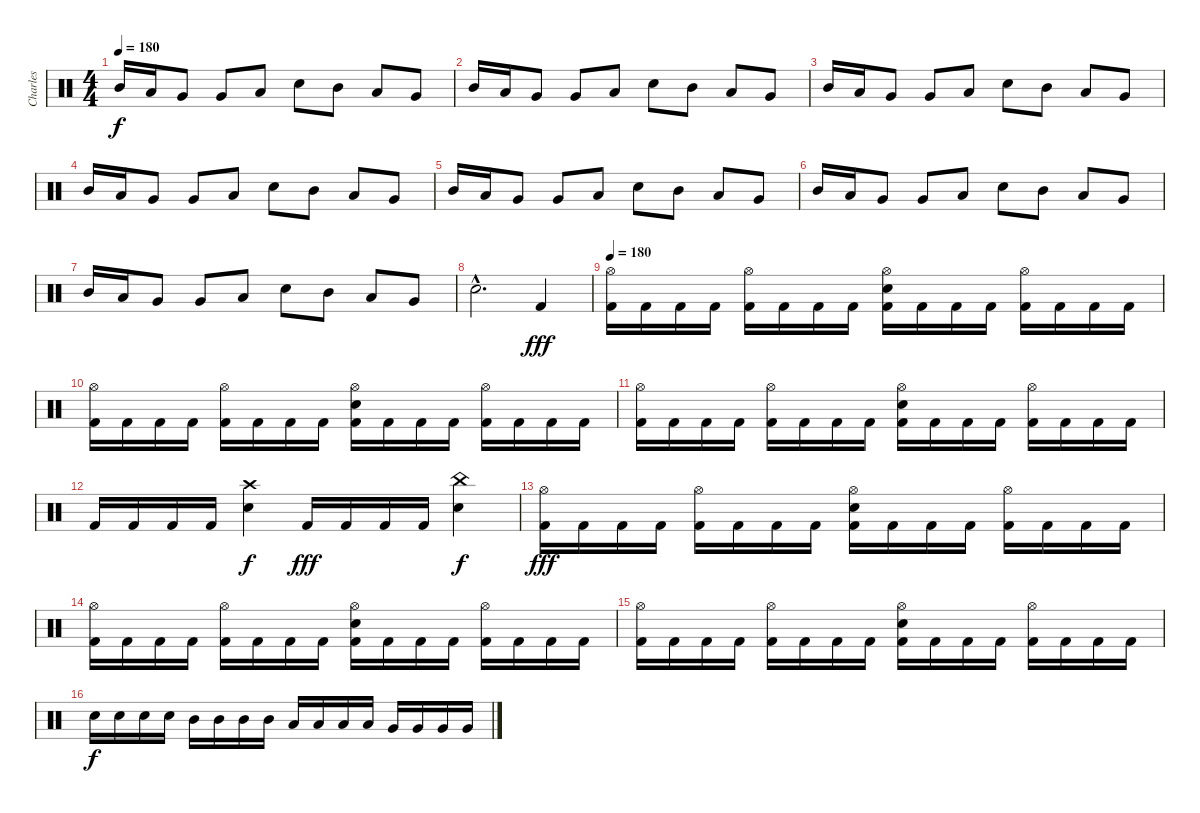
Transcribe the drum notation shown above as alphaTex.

\track ("Charles" "Charles") {instrument percussion}
\staff {score}
\articulation defaults
\ts (4 4)
\tempo 180
\clef neutral
\ks c "Mid Tom (hit)".16{dy f} "Low Tom (hit)".16 "Very Low Tom (hit)".8 "Very Low Tom (hit)".8 "Low Floor Tom (hit)".8 "Electric Snare (hit)".8 "Mid Tom (hit)".8 "Low Tom (hit)".8 "Very Low Tom (hit)".8
|
"Mid Tom (hit)".16 "Low Tom (hit)".16 "Very Low Tom (hit)".8 "Very Low Tom (hit)".8 "Low Floor Tom (hit)".8 "Electric Snare (hit)".8 "Mid Tom (hit)".8 "Low Tom (hit)".8 "Very Low Tom (hit)".8 |
"Mid Tom (hit)".16 "Low Tom (hit)".16 "Very Low Tom (hit)".8 "Very Low Tom (hit)".8 "Low Floor Tom (hit)".8 "Electric Snare (hit)".8 "Mid Tom (hit)".8 "Low Tom (hit)".8 "Very Low Tom (hit)".8 |
"Mid Tom (hit)".16 "Low Tom (hit)".16 "Very Low Tom (hit)".8 "Very Low Tom (hit)".8 "Low Floor Tom (hit)".8 "Electric Snare (hit)".8 "Mid Tom (hit)".8 "Low Tom (hit)".8 "Very Low Tom (hit)".8 |
"Mid Tom (hit)".16 "Low Tom (hit)".16 "Very Low Tom (hit)".8 "Very Low Tom (hit)".8 "Low Floor Tom (hit)".8 "Electric Snare (hit)".8 "Mid Tom (hit)".8 "Low Tom (hit)".8 "Very Low Tom (hit)".8 |
"Mid Tom (hit)".16 "Low Tom (hit)".16 "Very Low Tom (hit)".8 "Very Low Tom (hit)".8 "Low Floor Tom (hit)".8 "Electric Snare (hit)".8 "Mid Tom (hit)".8 "Low Tom (hit)".8 "Very Low Tom (hit)".8 |
"Mid Tom (hit)".16 "Low Tom (hit)".16 "Very Low Tom (hit)".8 "Very Low Tom (hit)".8 "Low Floor Tom (hit)".8 "Electric Snare (hit)".8 "Mid Tom (hit)".8 "Low Tom (hit)".8 "Very Low Tom (hit)".8 |
"Electric Snare (hit)"{hac}.2{d} "Kick (hit) 2".4{dy fff} |
\tempo 180
("Hi-Hat (open)" "Kick (hit) 2").16 "Kick (hit) 2".16 "Kick (hit) 2".16 "Kick (hit) 2".16 ("Hi-Hat (open)" "Kick (hit) 2").16 "Kick (hit) 2".16 "Kick (hit) 2".16 "Kick (hit) 2".16 ("Hi-Hat (open)" "Electric Snare (hit)" "Kick (hit) 2").16 "Kick (hit) 2".16 "Kick (hit) 2".16 "Kick (hit) 2".16 ("Hi-Hat (open)" "Kick (hit) 2").16 "Kick (hit) 2".16 "Kick (hit) 2".16 "Kick (hit) 2".16 |
("Hi-Hat (open)" "Kick (hit) 2").16 "Kick (hit) 2".16 "Kick (hit) 2".16 "Kick (hit) 2".16 ("Hi-Hat (open)" "Kick (hit) 2").16 "Kick (hit) 2".16 "Kick (hit) 2".16 "Kick (hit) 2".16 ("Hi-Hat (open)" "Electric Snare (hit)" "Kick (hit) 2").16 "Kick (hit) 2".16 "Kick (hit) 2".16 "Kick (hit) 2".16 ("Hi-Hat (open)" "Kick (hit) 2").16 "Kick (hit) 2".16 "Kick (hit) 2".16 "Kick (hit) 2".16 |
("Hi-Hat (open)" "Kick (hit) 2").16 "Kick (hit) 2".16 "Kick (hit) 2".16 "Kick (hit) 2".16 ("Hi-Hat (open)" "Kick (hit) 2").16 "Kick (hit) 2".16 "Kick (hit) 2".16 "Kick (hit) 2".16 ("Hi-Hat (open)" "Electric Snare (hit)" "Kick (hit) 2").16 "Kick (hit) 2".16 "Kick (hit) 2".16 "Kick (hit) 2".16 ("Hi-Hat (open)" "Kick (hit) 2").16 "Kick (hit) 2".16 "Kick (hit) 2".16 "Kick (hit) 2".16 |
"Kick (hit) 2".16 "Kick (hit) 2".16 "Kick (hit) 2".16 "Kick (hit) 2".16 ("Crash high (hit)" "Electric Snare (hit)").4{dy f} "Kick (hit) 2".16{dy fff} "Kick (hit) 2".16 "Kick (hit) 2".16 "Kick (hit) 2".16 ("China (hit)" "Electric Snare (hit)").4{dy f} |
("Hi-Hat (open)" "Kick (hit) 2").16{dy fff} "Kick (hit) 2".16 "Kick (hit) 2".16 "Kick (hit) 2".16 ("Hi-Hat (open)" "Kick (hit) 2").16 "Kick (hit) 2".16 "Kick (hit) 2".16 "Kick (hit) 2".16 ("Hi-Hat (open)" "Electric Snare (hit)" "Kick (hit) 2").16 "Kick (hit) 2".16 "Kick (hit) 2".16 "Kick (hit) 2".16 ("Hi-Hat (open)" "Kick (hit) 2").16 "Kick (hit) 2".16 "Kick (hit) 2".16 "Kick (hit) 2".16 |
("Hi-Hat (open)" "Kick (hit) 2").16 "Kick (hit) 2".16 "Kick (hit) 2".16 "Kick (hit) 2".16 ("Hi-Hat (open)" "Kick (hit) 2").16 "Kick (hit) 2".16 "Kick (hit) 2".16 "Kick (hit) 2".16 ("Hi-Hat (open)" "Electric Snare (hit)" "Kick (hit) 2").16 "Kick (hit) 2".16 "Kick (hit) 2".16 "Kick (hit) 2".16 ("Hi-Hat (open)" "Kick (hit) 2").16 "Kick (hit) 2".16 "Kick (hit) 2".16 "Kick (hit) 2".16 |
("Hi-Hat (open)" "Kick (hit) 2").16 "Kick (hit) 2".16 "Kick (hit) 2".16 "Kick (hit) 2".16 ("Hi-Hat (open)" "Kick (hit) 2").16 "Kick (hit) 2".16 "Kick (hit) 2".16 "Kick (hit) 2".16 ("Hi-Hat (open)" "Electric Snare (hit)" "Kick (hit) 2").16 "Kick (hit) 2".16 "Kick (hit) 2".16 "Kick (hit) 2".16 ("Hi-Hat (open)" "Kick (hit) 2").16 "Kick (hit) 2".16 "Kick (hit) 2".16 "Kick (hit) 2".16 |
"Electric Snare (hit)".16{dy f} "Electric Snare (hit)".16 "Electric Snare (hit)".16 "Electric Snare (hit)".16 "Mid Tom (hit)".16 "Mid Tom (hit)".16 "Mid Tom (hit)".16 "Mid Tom (hit)".16 "Low Tom (hit)".16 "Low Tom (hit)".16 "Low Tom (hit)".16 "Low Tom (hit)".16 "Very Low Tom (hit)".16 "Very Low Tom (hit)".16 "Very Low Tom (hit)".16 "Very Low Tom (hit)".16
